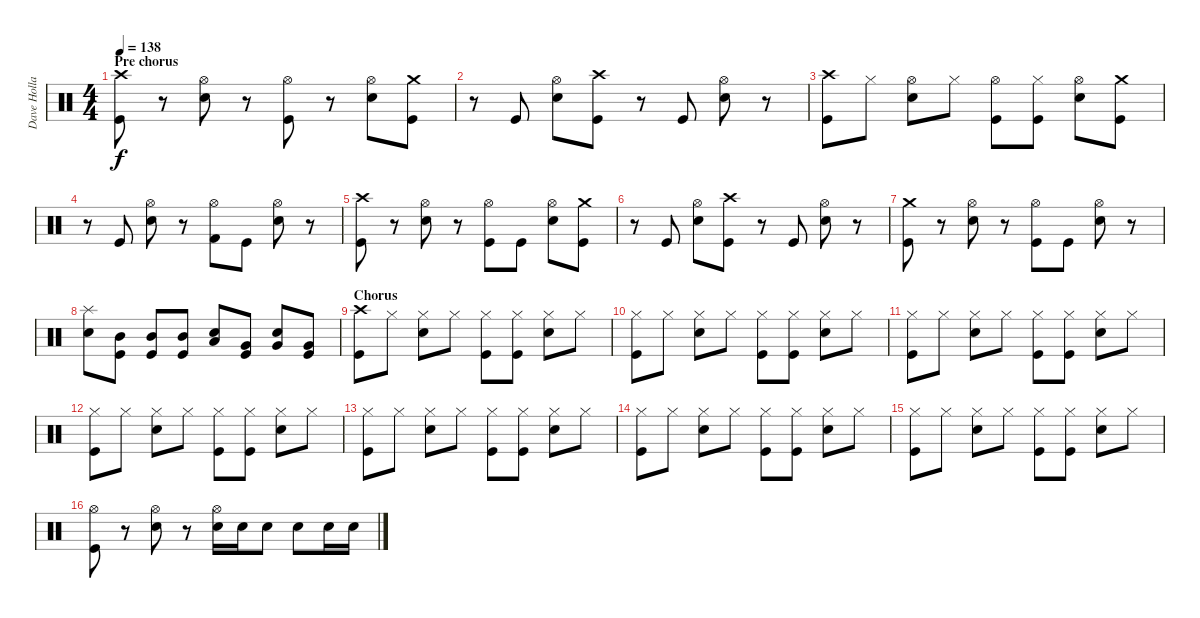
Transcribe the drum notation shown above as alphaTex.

\track ("Dave Holland" "Dave Holla") {instrument percussion}
\staff {score}
\articulation defaults
\ts (4 4)
\section ("" "Pre chorus")
\tempo 138
\clef neutral
\ks c
("Crash high (hit)" "Kick (hit)").8{dy f} r.8 ("Hi-Hat (open)" "Electric Snare (hit)").8 r.8 ("Hi-Hat (open)" "Kick (hit)").8 r.8 ("Hi-Hat (open)" "Electric Snare (hit)").8 ("Crash medium (hit)" "Kick (hit)").8 |
r.8 "Kick (hit)".8 ("Hi-Hat (open)" "Electric Snare (hit)").8 ("Crash high (hit)" "Kick (hit)").8 r.8 "Kick (hit)".8 ("Hi-Hat (open)" "Electric Snare (hit)").8 r.8 |
("Crash high (hit)" "Kick (hit)").8 "Hi-Hat (closed)".8 ("Hi-Hat (open)" "Electric Snare (hit)").8 "Hi-Hat (closed)".8 ("Hi-Hat (open)" "Kick (hit)").8 ("Hi-Hat (closed)" "Kick (hit)").8 ("Hi-Hat (open)" "Electric Snare (hit)").8 ("Crash medium (hit)" "Kick (hit)").8 |
r.8 "Kick (hit)".8 ("Hi-Hat (open)" "Electric Snare (hit)").8 r.8 ("Hi-Hat (open)" "Kick (hit) 2").8 "Kick (hit)".8 ("Hi-Hat (open)" "Electric Snare (hit)").8 r.8 |
("Crash high (hit)" "Kick (hit)").8 r.8 ("Hi-Hat (open)" "Electric Snare (hit)").8 r.8 ("Hi-Hat (open)" "Kick (hit)").8 "Kick (hit)".8 ("Hi-Hat (open)" "Electric Snare (hit)").8 ("Crash medium (hit)" "Kick (hit)").8 |
r.8 "Kick (hit)".8 ("Hi-Hat (open)" "Electric Snare (hit)").8 ("Crash high (hit)" "Kick (hit)").8 r.8 "Kick (hit)".8 ("Hi-Hat (open)" "Electric Snare (hit)").8 r.8 |
("Crash medium (hit)" "Kick (hit)").8 r.8 ("Hi-Hat (open)" "Electric Snare (hit)").8 r.8 ("Hi-Hat (open)" "Kick (hit)").8 "Kick (hit)".8 ("Hi-Hat (open)" "Electric Snare (hit)").8 r.8 |
("Splash (hit)" "Electric Snare (hit)").8 ("Mid Tom (hit)" "Kick (hit)").8 ("Mid Tom (hit)" "Kick (hit)").8 ("Mid Tom (hit)" "Kick (hit)").8 ("Low Tom (hit)" "Electric Snare (hit)").8 ("Very Low Tom (hit)" "Kick (hit)").8 ("Very Low Tom (hit)" "Electric Snare (hit)").8 ("Very Low Tom (hit)" "Kick (hit)").8 |
\section ("" "Chorus")
("Crash high (hit)" "Kick (hit)").8 "Hi-Hat (closed)".8 ("Hi-Hat (closed)" "Electric Snare (hit)").8 "Hi-Hat (closed)".8 ("Hi-Hat (closed)" "Kick (hit)").8 ("Hi-Hat (closed)" "Kick (hit)").8 ("Hi-Hat (closed)" "Electric Snare (hit)").8 "Hi-Hat (closed)".8 |
("Hi-Hat (closed)" "Kick (hit)").8 "Hi-Hat (closed)".8 ("Hi-Hat (closed)" "Electric Snare (hit)").8 "Hi-Hat (closed)".8 ("Hi-Hat (closed)" "Kick (hit)").8 ("Hi-Hat (closed)" "Kick (hit)").8 ("Hi-Hat (closed)" "Electric Snare (hit)").8 "Hi-Hat (closed)".8 |
("Hi-Hat (closed)" "Kick (hit)").8 "Hi-Hat (closed)".8 ("Hi-Hat (closed)" "Electric Snare (hit)").8 "Hi-Hat (closed)".8 ("Hi-Hat (closed)" "Kick (hit)").8 ("Hi-Hat (closed)" "Kick (hit)").8 ("Hi-Hat (closed)" "Electric Snare (hit)").8 "Hi-Hat (closed)".8 |
("Hi-Hat (closed)" "Kick (hit)").8 "Hi-Hat (closed)".8 ("Hi-Hat (closed)" "Electric Snare (hit)").8 "Hi-Hat (closed)".8 ("Hi-Hat (closed)" "Kick (hit)").8 ("Hi-Hat (closed)" "Kick (hit)").8 ("Hi-Hat (closed)" "Electric Snare (hit)").8 "Hi-Hat (closed)".8 |
("Hi-Hat (closed)" "Kick (hit)").8 "Hi-Hat (closed)".8 ("Hi-Hat (closed)" "Electric Snare (hit)").8 "Hi-Hat (closed)".8 ("Hi-Hat (closed)" "Kick (hit)").8 ("Hi-Hat (closed)" "Kick (hit)").8 ("Hi-Hat (closed)" "Electric Snare (hit)").8 "Hi-Hat (closed)".8 |
("Hi-Hat (closed)" "Kick (hit)").8 "Hi-Hat (closed)".8 ("Hi-Hat (closed)" "Electric Snare (hit)").8 "Hi-Hat (closed)".8 ("Hi-Hat (closed)" "Kick (hit)").8 ("Hi-Hat (closed)" "Kick (hit)").8 ("Hi-Hat (closed)" "Electric Snare (hit)").8 "Hi-Hat (closed)".8 |
("Hi-Hat (closed)" "Kick (hit)").8 "Hi-Hat (closed)".8 ("Hi-Hat (closed)" "Electric Snare (hit)").8 "Hi-Hat (closed)".8 ("Hi-Hat (closed)" "Kick (hit)").8 ("Hi-Hat (closed)" "Kick (hit)").8 ("Hi-Hat (closed)" "Electric Snare (hit)").8 "Hi-Hat (closed)".8 |
("Hi-Hat (open)" "Kick (hit)").8 r.8 ("Hi-Hat (open)" "Electric Snare (hit)").8 r.8 ("Hi-Hat (open)" "Electric Snare (hit)").16 "Electric Snare (hit)".16 "Electric Snare (hit)".8 "Electric Snare (hit)".8 "Electric Snare (hit)".16 "Electric Snare (hit)".16
